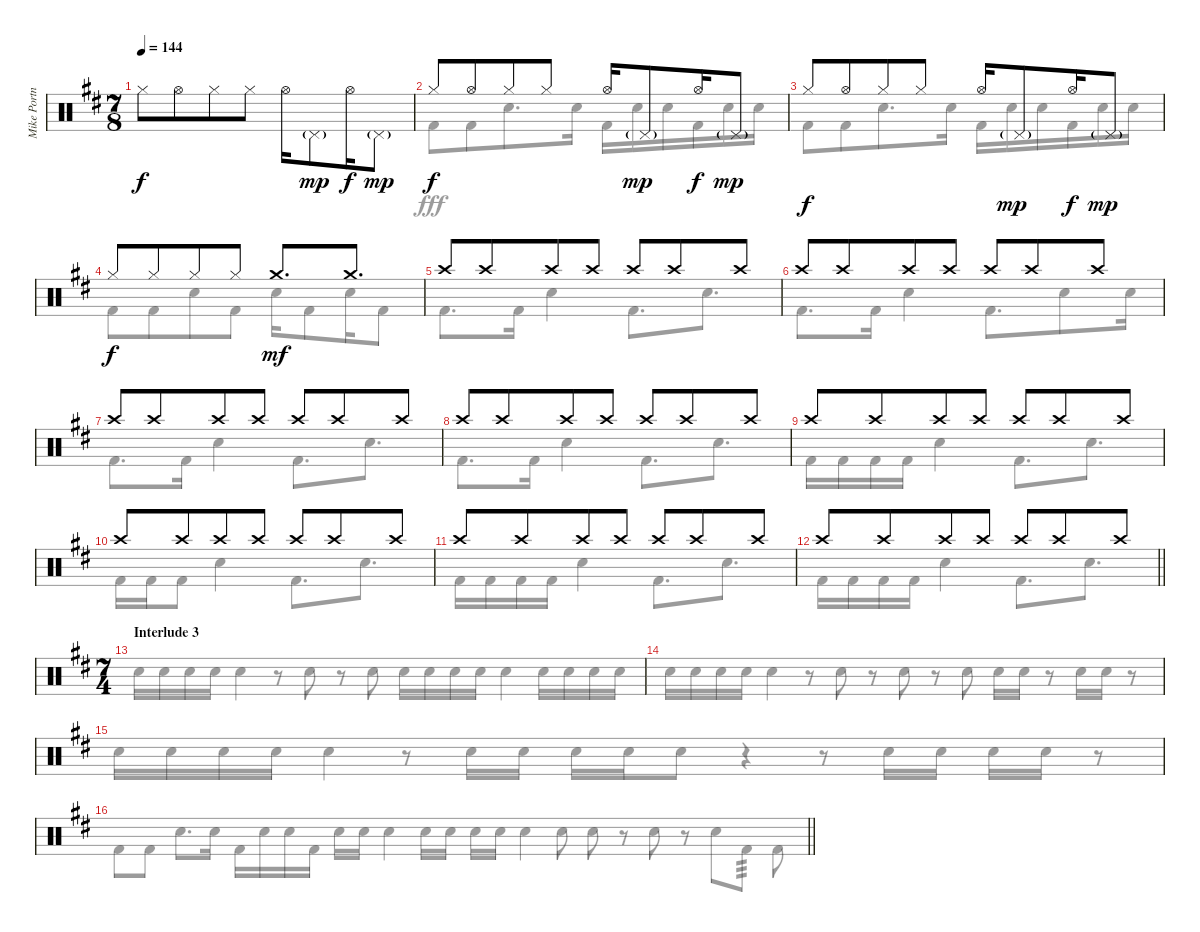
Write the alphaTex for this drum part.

\track ("Mike Portnoy Drums" "Mike Portn") {instrument percussion}
\staff {score}
\articulation defaults
\voice
\ts (7 8)
\tempo 144
\clef neutral
\ks bminor "Hi-Hat (closed)".8{dy f} "Hi-Hat (open)".8 "Hi-Hat (closed)".8 "Hi-Hat (closed)".8 "Hi-Hat (open)".16 "Pedal Hi-Hat (hit)"{g}.8{dy mp} "Hi-Hat (open)".16{dy f} "Pedal Hi-Hat (hit)"{g}.8{dy mp}
|
"Hi-Hat (closed)".8{dy f} "Hi-Hat (open)".8 "Hi-Hat (closed)".8 "Hi-Hat (closed)".8 "Hi-Hat (open)".16 "Pedal Hi-Hat (hit)"{g}.8{dy mp} "Hi-Hat (open)".16{dy f} "Pedal Hi-Hat (hit)"{g}.8{dy mp} |
"Hi-Hat (closed)".8{dy f} "Hi-Hat (open)".8 "Hi-Hat (closed)".8 "Hi-Hat (closed)".8 "Hi-Hat (open)".16 "Pedal Hi-Hat (hit)"{g}.8{dy mp} "Hi-Hat (open)".16{dy f} "Pedal Hi-Hat (hit)"{g}.8{dy mp} |
"Hi-Hat (closed)".8{dy f} "Hi-Hat (closed)".8 "Hi-Hat (closed)".8 "Hi-Hat (closed)".8 "Crash medium (hit)".8{d dy mf} "Crash medium (hit)".8{d} |
"Crash high (hit)".8 "Crash high (hit)".8 "Crash high (hit)".8 "Crash high (hit)".8 "Crash high (hit)".8 "Crash high (hit)".8 "Crash high (hit)".8 |
"Crash high (hit)".8 "Crash high (hit)".8 "Crash high (hit)".8 "Crash high (hit)".8 "Crash high (hit)".8 "Crash high (hit)".8 "Crash high (hit)".8 |
"Crash high (hit)".8 "Crash high (hit)".8 "Crash high (hit)".8 "Crash high (hit)".8 "Crash high (hit)".8 "Crash high (hit)".8 "Crash high (hit)".8 |
"Crash high (hit)".8 "Crash high (hit)".8 "Crash high (hit)".8 "Crash high (hit)".8 "Crash high (hit)".8 "Crash high (hit)".8 "Crash high (hit)".8 |
"Crash high (hit)".8 "Crash high (hit)".8 "Crash high (hit)".8 "Crash high (hit)".8 "Crash high (hit)".8 "Crash high (hit)".8 "Crash high (hit)".8 |
"Crash high (hit)".8 "Crash high (hit)".8 "Crash high (hit)".8 "Crash high (hit)".8 "Crash high (hit)".8 "Crash high (hit)".8 "Crash high (hit)".8 |
"Crash high (hit)".8 "Crash high (hit)".8 "Crash high (hit)".8 "Crash high (hit)".8 "Crash high (hit)".8 "Crash high (hit)".8 "Crash high (hit)".8 |
\barLineRight lightlight "Crash high (hit)".8 "Crash high (hit)".8 "Crash high (hit)".8 "Crash high (hit)".8 "Crash high (hit)".8 "Crash high (hit)".8 "Crash high (hit)".8
|
\ts (7 4)
\section ("" "Interlude 3")
|
|
|
\barLineRight lightlight
\voice
\clef neutral
\ottava regular
\simile none
\ks bminor "Kick (hit) 2".8{dy fff} "Kick (hit) 2".8 "Snare (hit) 2".8{d} "Snare (hit) 2".16 "Kick (hit) 2".16 "Snare (hit) 2".16 "Snare (hit) 2".16 "Kick (hit) 2".16 "Snare (hit) 2".16 "Snare (hit) 2".16
|
"Kick (hit) 2".8 "Kick (hit) 2".8 "Snare (hit) 2".8{d} "Snare (hit) 2".16 "Kick (hit) 2".16 "Snare (hit) 2".16 "Snare (hit) 2".16 "Kick (hit) 2".16 "Snare (hit) 2".16 "Snare (hit) 2".16 |
"Kick (hit) 2".8 "Kick (hit) 2".8 "Snare (hit) 2".8{d} "Snare (hit) 2".16 "Kick (hit) 2".16 "Snare (hit) 2".16 "Snare (hit) 2".16 "Kick (hit) 2".16 "Snare (hit) 2".16 "Snare (hit) 2".16 |
"Kick (hit) 2".8 "Kick (hit) 2".8 "Snare (hit) 2".8 "Kick (hit) 2".8 "Snare (hit) 2".16 "Kick (hit) 2".8 "Snare (hit) 2".16 "Kick (hit) 2".8 |
"Kick (hit) 2".8{d} "Kick (hit) 2".16 "Snare (hit) 2".4 "Kick (hit) 2".8{d} "Snare (hit) 2".8{d} |
"Kick (hit) 2".8{d} "Kick (hit) 2".16 "Snare (hit) 2".4 "Kick (hit) 2".8{d} "Snare (hit) 2".8 "Snare (hit) 2".16 |
"Kick (hit) 2".8{d} "Kick (hit) 2".16 "Snare (hit) 2".4 "Kick (hit) 2".8{d} "Snare (hit) 2".8{d} |
"Kick (hit) 2".8{d} "Kick (hit) 2".16 "Snare (hit) 2".4 "Kick (hit) 2".8{d} "Snare (hit) 2".8{d} |
"Kick (hit) 2".16 "Kick (hit) 2".16 "Kick (hit) 2".16 "Kick (hit) 2".16 "Snare (hit) 2".4 "Kick (hit) 2".8{d} "Snare (hit) 2".8{d} |
"Kick (hit) 2".16 "Kick (hit) 2".16 "Kick (hit) 2".8 "Snare (hit) 2".4 "Kick (hit) 2".8{d} "Snare (hit) 2".8{d} |
"Kick (hit) 2".16 "Kick (hit) 2".16 "Kick (hit) 2".16 "Kick (hit) 2".16 "Snare (hit) 2".4 "Kick (hit) 2".8{d} "Snare (hit) 2".8{d} |
\barLineRight lightlight "Kick (hit) 2".16 "Kick (hit) 2".16 "Kick (hit) 2".16 "Kick (hit) 2".16 "Snare (hit) 2".4 "Kick (hit) 2".8{d} "Snare (hit) 2".8{d}
|
"Snare (hit) 2".16 "Snare (hit) 2".16 "Snare (hit) 2".16 "Snare (hit) 2".16 "Snare (hit) 2".4 r.8 "Snare (hit) 2".8 r.8 "Snare (hit) 2".8 "Snare (hit) 2".16 "Snare (hit) 2".16 "Snare (hit) 2".16 "Snare (hit) 2".16 "Snare (hit) 2".4 "Snare (hit) 2".16 "Snare (hit) 2".16 "Snare (hit) 2".16 "Snare (hit) 2".16 |
"Snare (hit) 2".16 "Snare (hit) 2".16 "Snare (hit) 2".16 "Snare (hit) 2".16 "Snare (hit) 2".4 r.8 "Snare (hit) 2".8 r.8 "Snare (hit) 2".8 r.8 "Snare (hit) 2".8 "Snare (hit) 2".16 "Snare (hit) 2".16 r.8 "Snare (hit) 2".16 "Snare (hit) 2".16 r.8 |
"Snare (hit) 2".16 "Snare (hit) 2".16 "Snare (hit) 2".16 "Snare (hit) 2".16 "Snare (hit) 2".4 r.8 "Snare (hit) 2".16 "Snare (hit) 2".16 "Snare (hit) 2".16 "Snare (hit) 2".16 "Snare (hit) 2".8 r.4 r.8 "Snare (hit) 2".16 "Snare (hit) 2".16 "Snare (hit) 2".16 "Snare (hit) 2".16 r.8 |
\barLineRight lightlight "Snare (hit) 2".4 "Snare (hit) 2".16 "Snare (hit) 2".16 "Snare (hit) 2".16 "Snare (hit) 2".16 "Snare (hit) 2".4 "Snare (hit) 2".8 "Snare (hit) 2".8
r.8 "Snare (hit) 2".8 r.8 "Snare (hit) 2".8 "Kick (hit) 2".8{tp 3} "Kick (hit) 2".8
